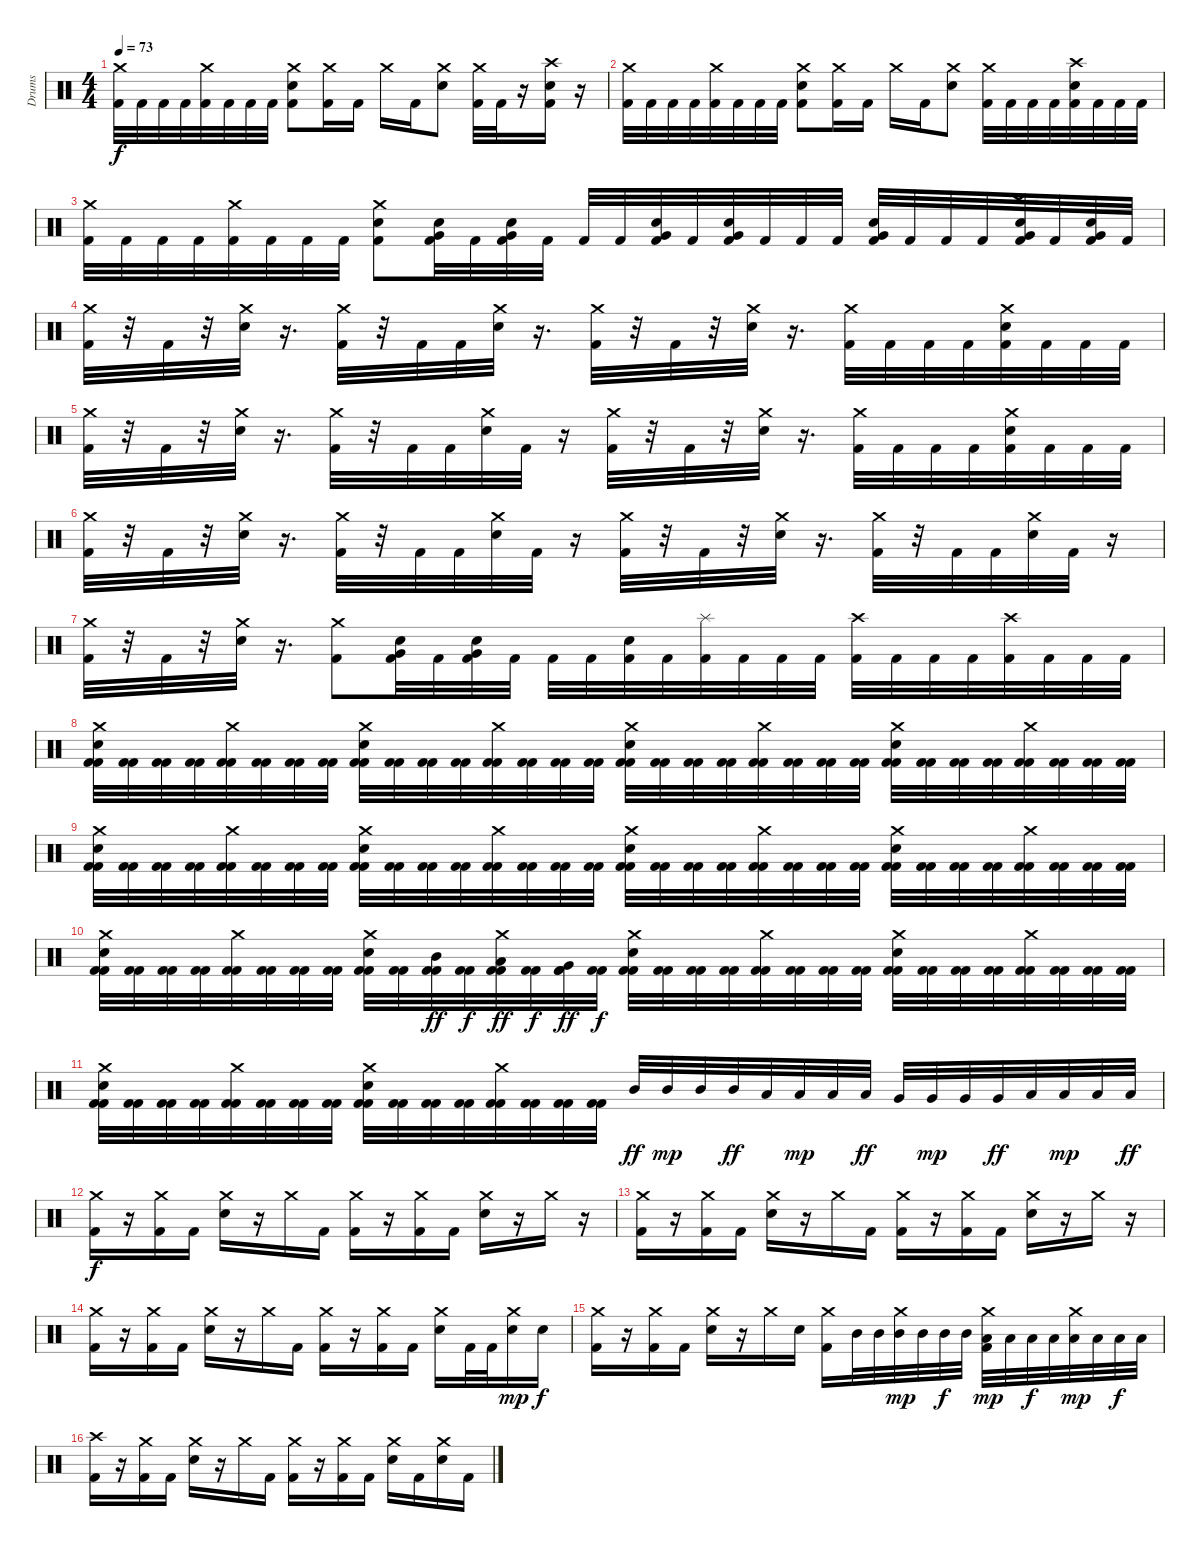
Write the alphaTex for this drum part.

\track ("Drums" "Drums") {instrument percussion}
\staff {score}
\articulation defaults
\ts (4 4)
\tempo 73
\clef neutral
\ks c
("Crash medium (hit)" "Kick (hit) 2").32{dy f} "Kick (hit) 2".32 "Kick (hit) 2".32 "Kick (hit) 2".32 ("Crash medium (hit)" "Kick (hit) 2").32 "Kick (hit) 2".32 "Kick (hit) 2".32 "Kick (hit) 2".32 ("Crash medium (hit)" "Electric Snare (hit)" "Kick (hit) 2").8 ("Crash medium (hit)" "Kick (hit) 2").16 "Kick (hit) 2".16 "Crash medium (hit)".16 "Kick (hit) 2".16 ("Crash medium (hit)" "Electric Snare (hit)").8 ("Crash medium (hit)" "Kick (hit) 2").32 "Kick (hit) 2".32 r.16 ("Crash high (hit)" "Electric Snare (hit)" "Kick (hit) 2").16 r.16 |
("Crash medium (hit)" "Kick (hit) 2").32 "Kick (hit) 2".32 "Kick (hit) 2".32 "Kick (hit) 2".32 ("Crash medium (hit)" "Kick (hit) 2").32 "Kick (hit) 2".32 "Kick (hit) 2".32 "Kick (hit) 2".32 ("Crash medium (hit)" "Electric Snare (hit)" "Kick (hit) 2").8 ("Crash medium (hit)" "Kick (hit) 2").16 "Kick (hit) 2".16 "Crash medium (hit)".16 "Kick (hit) 2".16 ("Crash medium (hit)" "Electric Snare (hit)").8 ("Crash medium (hit)" "Kick (hit) 2").32 "Kick (hit) 2".32 "Kick (hit) 2".32 "Kick (hit) 2".32 ("Crash high (hit)" "Electric Snare (hit)" "Kick (hit) 2").32 "Kick (hit) 2".32 "Kick (hit) 2".32 "Kick (hit) 2".32 |
("Crash medium (hit)" "Kick (hit) 2").32 "Kick (hit) 2".32 "Kick (hit) 2".32 "Kick (hit) 2".32 ("Crash medium (hit)" "Kick (hit) 2").32 "Kick (hit) 2".32 "Kick (hit) 2".32 "Kick (hit) 2".32 ("Crash medium (hit)" "Electric Snare (hit)" "Kick (hit) 2").8 ("Very Low Tom (hit)" "Electric Snare (hit)" "Kick (hit) 2").32 "Kick (hit) 2".32 ("Very Low Tom (hit)" "Electric Snare (hit)" "Kick (hit) 2").32 "Kick (hit) 2".32 "Kick (hit) 2".32 "Kick (hit) 2".32 ("Very Low Tom (hit)" "Electric Snare (hit)" "Kick (hit) 2").32 "Kick (hit) 2".32 ("Very Low Tom (hit)" "Electric Snare (hit)" "Kick (hit) 2").32 "Kick (hit) 2".32 "Kick (hit) 2".32 "Kick (hit) 2".32 ("Very Low Tom (hit)" "Electric Snare (hit)" "Kick (hit) 2").32 "Kick (hit) 2".32 "Kick (hit) 2".32 "Kick (hit) 2".32 ("Crash high (hit)" "Very Low Tom (hit)" "Electric Snare (hit)" "Kick (hit) 2").32 "Kick (hit) 2".32 ("Very Low Tom (hit)" "Electric Snare (hit)" "Kick (hit) 2").32 "Kick (hit) 2".32 |
("Crash medium (hit)" "Kick (hit) 2").32 r.32 "Kick (hit) 2".32 r.32 ("Crash medium (hit)" "Electric Snare (hit)").32 r.16{d} ("Crash medium (hit)" "Kick (hit) 2").32 r.32 "Kick (hit) 2".32 "Kick (hit) 2".32 ("Crash medium (hit)" "Electric Snare (hit)").32 r.16{d} ("Crash medium (hit)" "Kick (hit) 2").32 r.32 "Kick (hit) 2".32 r.32 ("Crash medium (hit)" "Electric Snare (hit)").32 r.16{d} ("Crash medium (hit)" "Kick (hit) 2").32 "Kick (hit) 2".32 "Kick (hit) 2".32 "Kick (hit) 2".32 ("Crash medium (hit)" "Electric Snare (hit)" "Kick (hit) 2").32 "Kick (hit) 2".32 "Kick (hit) 2".32 "Kick (hit) 2".32 |
("Crash medium (hit)" "Kick (hit) 2").32 r.32 "Kick (hit) 2".32 r.32 ("Crash medium (hit)" "Electric Snare (hit)").32 r.16{d} ("Crash medium (hit)" "Kick (hit) 2").32 r.32 "Kick (hit) 2".32 "Kick (hit) 2".32 ("Crash medium (hit)" "Electric Snare (hit)").32 "Kick (hit) 2".32 r.16 ("Crash medium (hit)" "Kick (hit) 2").32 r.32 "Kick (hit) 2".32 r.32 ("Crash medium (hit)" "Electric Snare (hit)").32 r.16{d} ("Crash medium (hit)" "Kick (hit) 2").32 "Kick (hit) 2".32 "Kick (hit) 2".32 "Kick (hit) 2".32 ("Crash medium (hit)" "Electric Snare (hit)" "Kick (hit) 2").32 "Kick (hit) 2".32 "Kick (hit) 2".32 "Kick (hit) 2".32 |
("Crash medium (hit)" "Kick (hit) 2").32 r.32 "Kick (hit) 2".32 r.32 ("Crash medium (hit)" "Electric Snare (hit)").32 r.16{d} ("Crash medium (hit)" "Kick (hit) 2").32 r.32 "Kick (hit) 2".32 "Kick (hit) 2".32 ("Crash medium (hit)" "Electric Snare (hit)").32 "Kick (hit) 2".32 r.16 ("Crash medium (hit)" "Kick (hit) 2").32 r.32 "Kick (hit) 2".32 r.32 ("Crash medium (hit)" "Electric Snare (hit)").32 r.16{d} ("Crash medium (hit)" "Kick (hit) 2").32 r.32 "Kick (hit) 2".32 "Kick (hit) 2".32 ("Crash medium (hit)" "Electric Snare (hit)").32 "Kick (hit) 2".32 r.16 |
("Crash medium (hit)" "Kick (hit) 2").32 r.32 "Kick (hit) 2".32 r.32 ("Crash medium (hit)" "Electric Snare (hit)").32 r.16{d} ("Crash medium (hit)" "Kick (hit) 2").8 ("Very Low Tom (hit)" "Electric Snare (hit)" "Kick (hit) 2").32 "Kick (hit) 2".32 ("Very Low Tom (hit)" "Electric Snare (hit)" "Kick (hit) 2").32 "Kick (hit) 2".32 "Kick (hit) 2".32 "Kick (hit) 2".32 ("Electric Snare (hit)" "Kick (hit) 2").32 "Kick (hit) 2".32 ("Splash (hit)" "Kick (hit) 2").32 "Kick (hit) 2".32 "Kick (hit) 2".32 "Kick (hit) 2".32 ("Crash high (hit)" "Kick (hit) 2").32 "Kick (hit) 2".32 "Kick (hit) 2".32 "Kick (hit) 2".32 ("Crash high (hit)" "Kick (hit) 2").32 "Kick (hit) 2".32 "Kick (hit) 2".32 "Kick (hit) 2".32 |
("Crash medium (hit)" "Electric Snare (hit)" "Kick (hit) 2" "Kick (hit) 2").32 ("Kick (hit) 2" "Kick (hit) 2").32 ("Kick (hit) 2" "Kick (hit) 2").32 ("Kick (hit) 2" "Kick (hit) 2").32 ("Crash medium (hit)" "Kick (hit) 2" "Kick (hit) 2").32 ("Kick (hit) 2" "Kick (hit) 2").32 ("Kick (hit) 2" "Kick (hit) 2").32 ("Kick (hit) 2" "Kick (hit) 2").32 ("Crash medium (hit)" "Electric Snare (hit)" "Kick (hit) 2" "Kick (hit) 2").32 ("Kick (hit) 2" "Kick (hit) 2").32 ("Kick (hit) 2" "Kick (hit) 2").32 ("Kick (hit) 2" "Kick (hit) 2").32 ("Crash medium (hit)" "Kick (hit) 2" "Kick (hit) 2").32 ("Kick (hit) 2" "Kick (hit) 2").32 ("Kick (hit) 2" "Kick (hit) 2").32 ("Kick (hit) 2" "Kick (hit) 2").32 ("Crash medium (hit)" "Electric Snare (hit)" "Kick (hit) 2" "Kick (hit) 2").32 ("Kick (hit) 2" "Kick (hit) 2").32 ("Kick (hit) 2" "Kick (hit) 2").32 ("Kick (hit) 2" "Kick (hit) 2").32 ("Crash medium (hit)" "Kick (hit) 2" "Kick (hit) 2").32 ("Kick (hit) 2" "Kick (hit) 2").32 ("Kick (hit) 2" "Kick (hit) 2").32 ("Kick (hit) 2" "Kick (hit) 2").32 ("Crash medium (hit)" "Electric Snare (hit)" "Kick (hit) 2" "Kick (hit) 2").32 ("Kick (hit) 2" "Kick (hit) 2").32 ("Kick (hit) 2" "Kick (hit) 2").32 ("Kick (hit) 2" "Kick (hit) 2").32 ("Crash medium (hit)" "Kick (hit) 2" "Kick (hit) 2").32 ("Kick (hit) 2" "Kick (hit) 2").32 ("Kick (hit) 2" "Kick (hit) 2").32 ("Kick (hit) 2" "Kick (hit) 2").32 |
("Crash medium (hit)" "Electric Snare (hit)" "Kick (hit) 2" "Kick (hit) 2").32 ("Kick (hit) 2" "Kick (hit) 2").32 ("Kick (hit) 2" "Kick (hit) 2").32 ("Kick (hit) 2" "Kick (hit) 2").32 ("Crash medium (hit)" "Kick (hit) 2" "Kick (hit) 2").32 ("Kick (hit) 2" "Kick (hit) 2").32 ("Kick (hit) 2" "Kick (hit) 2").32 ("Kick (hit) 2" "Kick (hit) 2").32 ("Crash medium (hit)" "Electric Snare (hit)" "Kick (hit) 2" "Kick (hit) 2").32 ("Kick (hit) 2" "Kick (hit) 2").32 ("Kick (hit) 2" "Kick (hit) 2").32 ("Kick (hit) 2" "Kick (hit) 2").32 ("Crash medium (hit)" "Kick (hit) 2" "Kick (hit) 2").32 ("Kick (hit) 2" "Kick (hit) 2").32 ("Kick (hit) 2" "Kick (hit) 2").32 ("Kick (hit) 2" "Kick (hit) 2").32 ("Crash medium (hit)" "Electric Snare (hit)" "Kick (hit) 2" "Kick (hit) 2").32 ("Kick (hit) 2" "Kick (hit) 2").32 ("Kick (hit) 2" "Kick (hit) 2").32 ("Kick (hit) 2" "Kick (hit) 2").32 ("Crash medium (hit)" "Kick (hit) 2" "Kick (hit) 2").32 ("Kick (hit) 2" "Kick (hit) 2").32 ("Kick (hit) 2" "Kick (hit) 2").32 ("Kick (hit) 2" "Kick (hit) 2").32 ("Crash medium (hit)" "Electric Snare (hit)" "Kick (hit) 2" "Kick (hit) 2").32 ("Kick (hit) 2" "Kick (hit) 2").32 ("Kick (hit) 2" "Kick (hit) 2").32 ("Kick (hit) 2" "Kick (hit) 2").32 ("Crash medium (hit)" "Kick (hit) 2" "Kick (hit) 2").32 ("Kick (hit) 2" "Kick (hit) 2").32 ("Kick (hit) 2" "Kick (hit) 2").32 ("Kick (hit) 2" "Kick (hit) 2").32 |
("Crash medium (hit)" "Electric Snare (hit)" "Kick (hit) 2" "Kick (hit) 2").32 ("Kick (hit) 2" "Kick (hit) 2").32 ("Kick (hit) 2" "Kick (hit) 2").32 ("Kick (hit) 2" "Kick (hit) 2").32 ("Crash medium (hit)" "Kick (hit) 2" "Kick (hit) 2").32 ("Kick (hit) 2" "Kick (hit) 2").32 ("Kick (hit) 2" "Kick (hit) 2").32 ("Kick (hit) 2" "Kick (hit) 2").32 ("Crash medium (hit)" "Electric Snare (hit)" "Kick (hit) 2" "Kick (hit) 2").32 ("Kick (hit) 2" "Kick (hit) 2").32 ("Mid Tom (hit)" "Kick (hit) 2" "Kick (hit) 2").32{dy ff} ("Kick (hit) 2" "Kick (hit) 2").32{dy f} ("Crash medium (hit)" "Low Tom (hit)" "Kick (hit) 2" "Kick (hit) 2").32{dy ff} ("Kick (hit) 2" "Kick (hit) 2").32{dy f} ("Very Low Tom (hit)" "Kick (hit) 2" "Kick (hit) 2").32{dy ff} ("Kick (hit) 2" "Kick (hit) 2").32{dy f} ("Crash medium (hit)" "Electric Snare (hit)" "Kick (hit) 2" "Kick (hit) 2").32 ("Kick (hit) 2" "Kick (hit) 2").32 ("Kick (hit) 2" "Kick (hit) 2").32 ("Kick (hit) 2" "Kick (hit) 2").32 ("Crash medium (hit)" "Kick (hit) 2" "Kick (hit) 2").32 ("Kick (hit) 2" "Kick (hit) 2").32 ("Kick (hit) 2" "Kick (hit) 2").32 ("Kick (hit) 2" "Kick (hit) 2").32 ("Crash medium (hit)" "Electric Snare (hit)" "Kick (hit) 2" "Kick (hit) 2").32 ("Kick (hit) 2" "Kick (hit) 2").32 ("Kick (hit) 2" "Kick (hit) 2").32 ("Kick (hit) 2" "Kick (hit) 2").32 ("Crash medium (hit)" "Kick (hit) 2" "Kick (hit) 2").32 ("Kick (hit) 2" "Kick (hit) 2").32 ("Kick (hit) 2" "Kick (hit) 2").32 ("Kick (hit) 2" "Kick (hit) 2").32 |
("Crash medium (hit)" "Electric Snare (hit)" "Kick (hit) 2" "Kick (hit) 2").32 ("Kick (hit) 2" "Kick (hit) 2").32 ("Kick (hit) 2" "Kick (hit) 2").32 ("Kick (hit) 2" "Kick (hit) 2").32 ("Crash medium (hit)" "Kick (hit) 2" "Kick (hit) 2").32 ("Kick (hit) 2" "Kick (hit) 2").32 ("Kick (hit) 2" "Kick (hit) 2").32 ("Kick (hit) 2" "Kick (hit) 2").32 ("Crash medium (hit)" "Electric Snare (hit)" "Kick (hit) 2" "Kick (hit) 2").32 ("Kick (hit) 2" "Kick (hit) 2").32 ("Kick (hit) 2" "Kick (hit) 2").32 ("Kick (hit) 2" "Kick (hit) 2").32 ("Crash medium (hit)" "Kick (hit) 2" "Kick (hit) 2").32 ("Kick (hit) 2" "Kick (hit) 2").32 ("Kick (hit) 2" "Kick (hit) 2").32 ("Kick (hit) 2" "Kick (hit) 2").32 "Mid Tom (hit)".32{dy ff} "Mid Tom (hit)".32{dy mp} "Mid Tom (hit)".32 "Mid Tom (hit)".32{dy ff} "Low Tom (hit)".32 "Low Tom (hit)".32{dy mp} "Low Tom (hit)".32 "Low Tom (hit)".32{dy ff} "Very Low Tom (hit)".32 "Very Low Tom (hit)".32{dy mp} "Very Low Tom (hit)".32 "Very Low Tom (hit)".32{dy ff} "Low Floor Tom (hit)".32 "Low Floor Tom (hit)".32{dy mp} "Low Floor Tom (hit)".32 "Low Floor Tom (hit)".32{dy ff} |
("Crash medium (hit)" "Kick (hit) 2").16{dy f} r.16 ("Crash medium (hit)" "Kick (hit) 2").16 "Kick (hit) 2".16 ("Crash medium (hit)" "Electric Snare (hit)").16 r.16 "Crash medium (hit)".16 "Kick (hit) 2".16 ("Crash medium (hit)" "Kick (hit) 2").16 r.16 ("Crash medium (hit)" "Kick (hit) 2").16 "Kick (hit) 2".16 ("Crash medium (hit)" "Electric Snare (hit)").16 r.16 "Crash medium (hit)".16 r.16 |
("Crash medium (hit)" "Kick (hit) 2").16 r.16 ("Crash medium (hit)" "Kick (hit) 2").16 "Kick (hit) 2".16 ("Crash medium (hit)" "Electric Snare (hit)").16 r.16 "Crash medium (hit)".16 "Kick (hit) 2".16 ("Crash medium (hit)" "Kick (hit) 2").16 r.16 ("Crash medium (hit)" "Kick (hit) 2").16 "Kick (hit) 2".16 ("Crash medium (hit)" "Electric Snare (hit)").16 r.16 "Crash medium (hit)".16 r.16 |
("Crash medium (hit)" "Kick (hit) 2").16 r.16 ("Crash medium (hit)" "Kick (hit) 2").16 "Kick (hit) 2".16 ("Crash medium (hit)" "Electric Snare (hit)").16 r.16 "Crash medium (hit)".16 "Kick (hit) 2".16 ("Crash medium (hit)" "Kick (hit) 2").16 r.16 ("Crash medium (hit)" "Kick (hit) 2").16 "Kick (hit) 2".16 ("Crash medium (hit)" "Electric Snare (hit)").16 "Kick (hit) 2".32 "Kick (hit) 2".32 ("Crash medium (hit)" "Electric Snare (hit)").16{dy mp} "Electric Snare (hit)".16{dy f} |
("Crash medium (hit)" "Kick (hit) 2").16 r.16 ("Crash medium (hit)" "Kick (hit) 2").16 "Kick (hit) 2".16 ("Crash medium (hit)" "Electric Snare (hit)").16 r.16 "Crash medium (hit)".16 "Electric Snare (hit)".16 ("Crash medium (hit)" "Kick (hit) 2").16 "Mid Tom (hit)".32 "Mid Tom (hit)".32 ("Crash medium (hit)" "Mid Tom (hit)").32{dy mp} "Mid Tom (hit)".32 "Mid Tom (hit)".32{dy f} "Mid Tom (hit)".32 ("Crash medium (hit)" "Low Tom (hit)" "Kick (hit) 2").32{dy mp} "Low Tom (hit)".32 "Low Tom (hit)".32{dy f} "Low Tom (hit)".32 ("Crash medium (hit)" "Low Tom (hit)").32{dy mp} "Low Tom (hit)".32 "Low Tom (hit)".32{dy f} "Low Tom (hit)".32 |
("Crash high (hit)" "Kick (hit) 2").16{volume 11} r.16 ("Crash medium (hit)" "Kick (hit) 2").16 "Kick (hit) 2".16 ("Crash medium (hit)" "Electric Snare (hit)").16 r.16 "Crash medium (hit)".16 "Kick (hit) 2".16 ("Crash medium (hit)" "Kick (hit) 2").16 r.16 ("Crash medium (hit)" "Kick (hit) 2").16 "Kick (hit) 2".16 ("Crash medium (hit)" "Snare (hit) 2").16 "Kick (hit) 2".16 ("Crash medium (hit)" "Snare (hit) 2").16 "Kick (hit) 2".16
